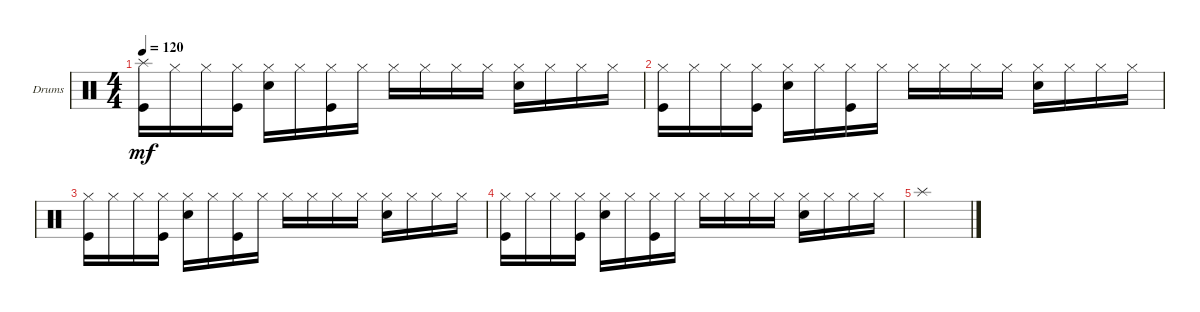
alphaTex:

\defaultSystemsLayout 4
\bracketExtendMode groupsimilarinstruments
\firstSystemTrackNameOrientation horizontal
\otherSystemsTrackNameOrientation horizontal
\track ("Drumkit" "Drums") {instrument percussion}
\staff {score}
\articulation defaults
\ts (4 4)
\tempo 120
\clef neutral
\ks c
("Splash (hit)" "Kick (hit)").16{dy mf} "Hi-Hat (closed)".16 "Hi-Hat (closed)".16 ("Hi-Hat (closed)" "Kick (hit)").16 ("Hi-Hat (closed)" "Snare (hit) 2").16 "Hi-Hat (closed)".16 ("Hi-Hat (closed)" "Kick (hit)").16 "Hi-Hat (closed)".16 "Hi-Hat (closed)".16 "Hi-Hat (closed)".16 "Hi-Hat (closed)".16 "Hi-Hat (closed)".16 ("Hi-Hat (closed)" "Snare (hit) 2").16 "Hi-Hat (closed)".16 "Hi-Hat (closed)".16 "Hi-Hat (closed)".16 |
("Kick (hit)" "Hi-Hat (closed)").16 "Hi-Hat (closed)".16 "Hi-Hat (closed)".16 ("Hi-Hat (closed)" "Kick (hit)").16 ("Hi-Hat (closed)" "Snare (hit) 2").16 "Hi-Hat (closed)".16 ("Hi-Hat (closed)" "Kick (hit)").16 "Hi-Hat (closed)".16 "Hi-Hat (closed)".16 "Hi-Hat (closed)".16 "Hi-Hat (closed)".16 "Hi-Hat (closed)".16 ("Hi-Hat (closed)" "Snare (hit) 2").16 "Hi-Hat (closed)".16 "Hi-Hat (closed)".16 "Hi-Hat (closed)".16 |
("Kick (hit)" "Hi-Hat (closed)").16 "Hi-Hat (closed)".16 "Hi-Hat (closed)".16 ("Hi-Hat (closed)" "Kick (hit)").16 ("Hi-Hat (closed)" "Snare (hit) 2").16 "Hi-Hat (closed)".16 ("Hi-Hat (closed)" "Kick (hit)").16 "Hi-Hat (closed)".16 "Hi-Hat (closed)".16 "Hi-Hat (closed)".16 "Hi-Hat (closed)".16 "Hi-Hat (closed)".16 ("Hi-Hat (closed)" "Snare (hit) 2").16 "Hi-Hat (closed)".16 "Hi-Hat (closed)".16 "Hi-Hat (closed)".16 |
("Kick (hit)" "Hi-Hat (closed)").16 "Hi-Hat (closed)".16 "Hi-Hat (closed)".16 ("Hi-Hat (closed)" "Kick (hit)").16 ("Hi-Hat (closed)" "Snare (hit) 2").16 "Hi-Hat (closed)".16 ("Hi-Hat (closed)" "Kick (hit)").16 "Hi-Hat (closed)".16 "Hi-Hat (closed)".16 "Hi-Hat (closed)".16 "Hi-Hat (closed)".16 "Hi-Hat (closed)".16 ("Hi-Hat (closed)" "Snare (hit) 2").16 "Hi-Hat (closed)".16 "Hi-Hat (closed)".16 "Hi-Hat (closed)".16 |
"Splash (hit)".1
